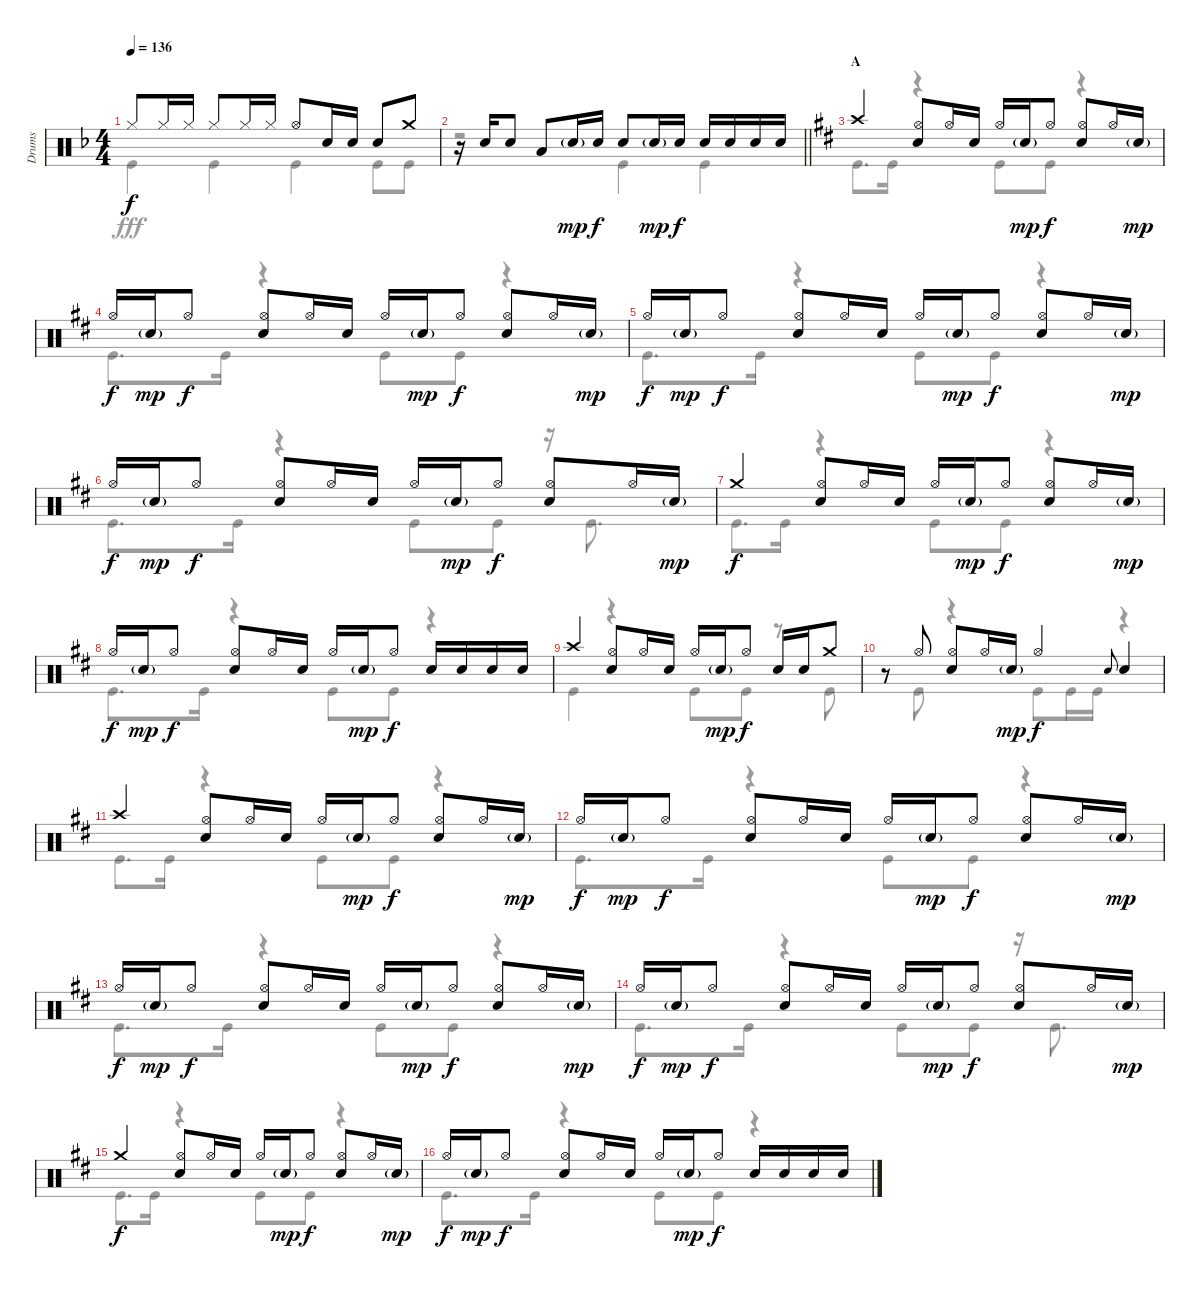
\track ("Drums" "Drums") {instrument percussion}
\staff {score}
\articulation defaults
\voice
\ts (4 4)
\tempo 136
\clef neutral
\ks f "Hi-Hat (closed)".8{dy f} "Hi-Hat (closed)".16 "Hi-Hat (closed)".16 "Hi-Hat (closed)".8 "Hi-Hat (closed)".16 "Hi-Hat (closed)".16 "Hi-Hat (open)".8 "Snare (hit) 2".16 "Snare (hit) 2".16 "Snare (hit) 2".8 "Crash medium (hit)".8
|
\barLineRight lightlight
r.16 "Snare (hit) 2".16 "Snare (hit) 2".8 "Low Tom (hit)".8 "Snare (hit) 2"{g}.16{dy mp} "Snare (hit) 2".16{dy f} "Snare (hit) 2".8 "Snare (hit) 2"{g}.16{dy mp} "Snare (hit) 2".16{dy f} "Snare (hit) 2".16 "Snare (hit) 2".16 "Snare (hit) 2".16 "Snare (hit) 2".16 |
\section ("" "A")
\ks d "Crash high (hit)".4
("Hi-Hat (open)" "Snare (hit) 2").8 "Hi-Hat (open)".16 "Snare (hit) 2".16 "Hi-Hat (open)".16 "Snare (hit) 2"{g}.16{dy mp} "Hi-Hat (open)".8{dy f} ("Hi-Hat (open)" "Snare (hit) 2").8 "Hi-Hat (open)".16 "Snare (hit) 2"{g}.16{dy mp} |
"Hi-Hat (open)".16{dy f} "Snare (hit) 2"{g}.16{dy mp} "Hi-Hat (open)".8{dy f} ("Hi-Hat (open)" "Snare (hit) 2").8 "Hi-Hat (open)".16 "Snare (hit) 2".16 "Hi-Hat (open)".16 "Snare (hit) 2"{g}.16{dy mp} "Hi-Hat (open)".8{dy f} ("Hi-Hat (open)" "Snare (hit) 2").8 "Hi-Hat (open)".16 "Snare (hit) 2"{g}.16{dy mp} |
"Hi-Hat (open)".16{dy f} "Snare (hit) 2"{g}.16{dy mp} "Hi-Hat (open)".8{dy f} ("Hi-Hat (open)" "Snare (hit) 2").8 "Hi-Hat (open)".16 "Snare (hit) 2".16 "Hi-Hat (open)".16 "Snare (hit) 2"{g}.16{dy mp} "Hi-Hat (open)".8{dy f} ("Hi-Hat (open)" "Snare (hit) 2").8 "Hi-Hat (open)".16 "Snare (hit) 2"{g}.16{dy mp} |
"Hi-Hat (open)".16{dy f} "Snare (hit) 2"{g}.16{dy mp} "Hi-Hat (open)".8{dy f} ("Hi-Hat (open)" "Snare (hit) 2").8 "Hi-Hat (open)".16 "Snare (hit) 2".16 "Hi-Hat (open)".16 "Snare (hit) 2"{g}.16{dy mp} "Hi-Hat (open)".8{dy f} ("Hi-Hat (open)" "Snare (hit) 2").8 "Hi-Hat (open)".16 "Snare (hit) 2"{g}.16{dy mp} |
"Crash medium (hit)".4{dy f} ("Hi-Hat (open)" "Snare (hit) 2").8 "Hi-Hat (open)".16 "Snare (hit) 2".16 "Hi-Hat (open)".16 "Snare (hit) 2"{g}.16{dy mp} "Hi-Hat (open)".8{dy f} ("Hi-Hat (open)" "Snare (hit) 2").8 "Hi-Hat (open)".16 "Snare (hit) 2"{g}.16{dy mp} |
"Hi-Hat (open)".16{dy f} "Snare (hit) 2"{g}.16{dy mp} "Hi-Hat (open)".8{dy f} ("Hi-Hat (open)" "Snare (hit) 2").8 "Hi-Hat (open)".16 "Snare (hit) 2".16 "Hi-Hat (open)".16 "Snare (hit) 2"{g}.16{dy mp} "Hi-Hat (open)".8{dy f} "Snare (hit) 2".16 "Snare (hit) 2".16 "Snare (hit) 2".16 "Snare (hit) 2".16 |
"Crash high (hit)".4 ("Hi-Hat (open)" "Snare (hit) 2").8 "Hi-Hat (open)".16 "Snare (hit) 2".16 "Hi-Hat (open)".16 "Snare (hit) 2"{g}.16{dy mp} "Hi-Hat (open)".8{dy f} "Snare (hit) 2".16 "Snare (hit) 2".16 "Crash medium (hit)".8 |
r.8 "Hi-Hat (open)".8 ("Hi-Hat (open)" "Snare (hit) 2").8 "Hi-Hat (open)".16 "Snare (hit) 2"{g}.16{dy mp} "Hi-Hat (open)".4{dy f} "Snare (hit) 2".8{gr onbeat} "Snare (hit) 2".4 |
"Crash high (hit)".4 ("Hi-Hat (open)" "Snare (hit) 2").8 "Hi-Hat (open)".16 "Snare (hit) 2".16 "Hi-Hat (open)".16 "Snare (hit) 2"{g}.16{dy mp} "Hi-Hat (open)".8{dy f} ("Hi-Hat (open)" "Snare (hit) 2").8 "Hi-Hat (open)".16 "Snare (hit) 2"{g}.16{dy mp} |
"Hi-Hat (open)".16{dy f} "Snare (hit) 2"{g}.16{dy mp} "Hi-Hat (open)".8{dy f} ("Hi-Hat (open)" "Snare (hit) 2").8 "Hi-Hat (open)".16 "Snare (hit) 2".16 "Hi-Hat (open)".16 "Snare (hit) 2"{g}.16{dy mp} "Hi-Hat (open)".8{dy f} ("Hi-Hat (open)" "Snare (hit) 2").8 "Hi-Hat (open)".16 "Snare (hit) 2"{g}.16{dy mp} |
"Hi-Hat (open)".16{dy f} "Snare (hit) 2"{g}.16{dy mp} "Hi-Hat (open)".8{dy f} ("Hi-Hat (open)" "Snare (hit) 2").8 "Hi-Hat (open)".16 "Snare (hit) 2".16 "Hi-Hat (open)".16 "Snare (hit) 2"{g}.16{dy mp} "Hi-Hat (open)".8{dy f} ("Hi-Hat (open)" "Snare (hit) 2").8 "Hi-Hat (open)".16 "Snare (hit) 2"{g}.16{dy mp} |
"Hi-Hat (open)".16{dy f} "Snare (hit) 2"{g}.16{dy mp} "Hi-Hat (open)".8{dy f} ("Hi-Hat (open)" "Snare (hit) 2").8 "Hi-Hat (open)".16 "Snare (hit) 2".16 "Hi-Hat (open)".16 "Snare (hit) 2"{g}.16{dy mp} "Hi-Hat (open)".8{dy f} ("Hi-Hat (open)" "Snare (hit) 2").8 "Hi-Hat (open)".16 "Snare (hit) 2"{g}.16{dy mp} |
"Crash medium (hit)".4{dy f} ("Hi-Hat (open)" "Snare (hit) 2").8 "Hi-Hat (open)".16 "Snare (hit) 2".16 "Hi-Hat (open)".16 "Snare (hit) 2"{g}.16{dy mp} "Hi-Hat (open)".8{dy f} ("Hi-Hat (open)" "Snare (hit) 2").8 "Hi-Hat (open)".16 "Snare (hit) 2"{g}.16{dy mp} |
"Hi-Hat (open)".16{dy f} "Snare (hit) 2"{g}.16{dy mp} "Hi-Hat (open)".8{dy f} ("Hi-Hat (open)" "Snare (hit) 2").8 "Hi-Hat (open)".16 "Snare (hit) 2".16 "Hi-Hat (open)".16 "Snare (hit) 2"{g}.16{dy mp} "Hi-Hat (open)".8{dy f} "Snare (hit) 2".16 "Snare (hit) 2".16 "Snare (hit) 2".16 "Snare (hit) 2".16
\voice
\clef neutral
\ottava regular
\simile none
\ks f "Kick (hit)".4{dy fff} "Kick (hit)".4 "Kick (hit)".4 "Kick (hit)".8 "Kick (hit)".8
|
\barLineRight lightlight
r.2 "Kick (hit)".4 "Kick (hit)".4 |
\ks d "Kick (hit)".8{d} "Kick (hit)".16
r.4 "Kick (hit)".8 "Kick (hit)".8 r.4 |
"Kick (hit)".8{d} "Kick (hit)".16 r.4 "Kick (hit)".8 "Kick (hit)".8 r.4 |
"Kick (hit)".8{d} "Kick (hit)".16 r.4 "Kick (hit)".8 "Kick (hit)".8 r.4 |
"Kick (hit)".8{d} "Kick (hit)".16 r.4 "Kick (hit)".8 "Kick (hit)".8 r.16 "Kick (hit)".8{d} |
"Kick (hit)".8{d} "Kick (hit)".16 r.4 "Kick (hit)".8 "Kick (hit)".8 r.4 |
"Kick (hit)".8{d} "Kick (hit)".16 r.4 "Kick (hit)".8 "Kick (hit)".8 r.4 |
"Kick (hit)".4 r.4 "Kick (hit)".8 "Kick (hit)".8 r.8 "Kick (hit)".8 |
r.8 "Kick (hit)".8 r.4 "Kick (hit)".8 "Kick (hit)".16 "Kick (hit)".16 r.4 |
"Kick (hit)".8{d} "Kick (hit)".16 r.4 "Kick (hit)".8 "Kick (hit)".8 r.4 |
"Kick (hit)".8{d} "Kick (hit)".16 r.4 "Kick (hit)".8 "Kick (hit)".8 r.4 |
"Kick (hit)".8{d} "Kick (hit)".16 r.4 "Kick (hit)".8 "Kick (hit)".8 r.4 |
"Kick (hit)".8{d} "Kick (hit)".16 r.4 "Kick (hit)".8 "Kick (hit)".8 r.16 "Kick (hit)".8{d} |
"Kick (hit)".8{d} "Kick (hit)".16 r.4 "Kick (hit)".8 "Kick (hit)".8 r.4 |
"Kick (hit)".8{d} "Kick (hit)".16 r.4 "Kick (hit)".8 "Kick (hit)".8 r.4
